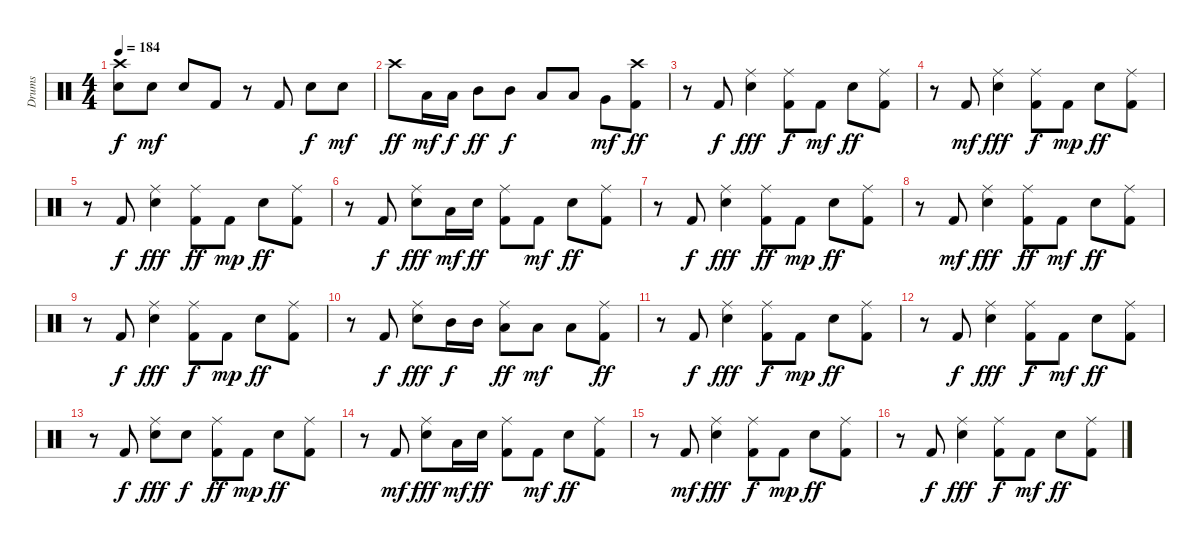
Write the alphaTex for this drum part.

\track ("Drums" "Drums") {instrument percussion}
\staff {score}
\articulation defaults
\ts (4 4)
\tempo 184
\clef neutral
\ks c
("Snare (hit) 2" "Crash high (hit)").8{dy f} "Snare (hit) 2".8{dy mf} "Snare (hit) 2".8 "Kick (hit) 2".8 r.8 "Kick (hit) 2".8 "Snare (hit) 2".8{dy f} "Snare (hit) 2".8{dy mf} |
"Crash high (hit)".8{dy ff} "Low Floor Tom (hit)".16{dy mf} "Low Floor Tom (hit)".16{dy f} "Mid Tom (hit)".8{dy ff} "Mid Tom (hit)".8{dy f} "Low Tom (hit)".8 "Low Tom (hit)".8 "Very Low Tom (hit)".8{dy mf} ("Kick (hit) 2" "Crash high (hit)").8{dy ff} |
r.8 "Kick (hit) 2".8{dy f} ("Snare (hit) 2" "Ride (middle)").4{dy fff} ("Kick (hit) 2" "Ride (middle)").8{dy f} "Kick (hit) 2".8{dy mf} "Snare (hit) 2".8{dy ff} ("Kick (hit) 2" "Ride (middle)").8 |
r.8 "Kick (hit) 2".8{dy mf} ("Snare (hit) 2" "Ride (middle)").4{dy fff} ("Kick (hit) 2" "Ride (middle)").8{dy f} "Kick (hit) 2".8{dy mp} "Snare (hit) 2".8{dy ff} ("Kick (hit) 2" "Ride (middle)").8 |
r.8 "Kick (hit) 2".8{dy f} ("Snare (hit) 2" "Ride (middle)").4{dy fff} ("Kick (hit) 2" "Ride (middle)").8{dy ff} "Kick (hit) 2".8{dy mp} "Snare (hit) 2".8{dy ff} ("Kick (hit) 2" "Ride (middle)").8 |
r.8 "Kick (hit) 2".8{dy f} ("Snare (hit) 2" "Ride (middle)").8{dy fff} "Low Floor Tom (hit)".16{dy mf} "Snare (hit) 2".16{dy ff} ("Kick (hit) 2" "Ride (middle)").8 "Kick (hit) 2".8{dy mf} "Snare (hit) 2".8{dy ff} ("Kick (hit) 2" "Ride (middle)").8 |
r.8 "Kick (hit) 2".8{dy f} ("Snare (hit) 2" "Ride (middle)").4{dy fff} ("Kick (hit) 2" "Ride (middle)").8{dy ff} "Kick (hit) 2".8{dy mp} "Snare (hit) 2".8{dy ff} ("Kick (hit) 2" "Ride (middle)").8 |
r.8 "Kick (hit) 2".8{dy mf} ("Snare (hit) 2" "Ride (middle)").4{dy fff} ("Kick (hit) 2" "Ride (middle)").8{dy ff} "Kick (hit) 2".8{dy mf} "Snare (hit) 2".8{dy ff} ("Kick (hit) 2" "Ride (middle)").8 |
r.8 "Kick (hit) 2".8{dy f} ("Snare (hit) 2" "Ride (middle)").4{dy fff} ("Kick (hit) 2" "Ride (middle)").8{dy f} "Kick (hit) 2".8{dy mp} "Snare (hit) 2".8{dy ff} ("Kick (hit) 2" "Ride (middle)").8 |
r.8 "Kick (hit) 2".8{dy f} ("Snare (hit) 2" "Ride (middle)").8{dy fff} "Mid Tom (hit)".16{dy f} "Mid Tom (hit)".16 ("Low Tom (hit)" "Ride (middle)").8{dy ff} "Low Tom (hit)".8{dy mf} "Low Floor Tom (hit)".8 ("Kick (hit) 2" "Ride (middle)").8{dy ff} |
r.8 "Kick (hit) 2".8{dy f} ("Snare (hit) 2" "Ride (middle)").4{dy fff} ("Kick (hit) 2" "Ride (middle)").8{dy f} "Kick (hit) 2".8{dy mp} "Snare (hit) 2".8{dy ff} ("Kick (hit) 2" "Ride (middle)").8 |
r.8 "Kick (hit) 2".8{dy f} ("Snare (hit) 2" "Ride (middle)").4{dy fff} ("Kick (hit) 2" "Ride (middle)").8{dy f} "Kick (hit) 2".8{dy mf} "Snare (hit) 2".8{dy ff} ("Kick (hit) 2" "Ride (middle)").8 |
r.8 "Kick (hit) 2".8{dy f} ("Snare (hit) 2" "Ride (middle)").8{dy fff} "Snare (hit) 2".8{dy f} ("Kick (hit) 2" "Ride (middle)").8{dy ff} "Kick (hit) 2".8{dy mp} "Snare (hit) 2".8{dy ff} ("Kick (hit) 2" "Ride (middle)").8 |
r.8 "Kick (hit) 2".8{dy mf} ("Snare (hit) 2" "Ride (middle)").8{dy fff} "Low Floor Tom (hit)".16{dy mf} "Snare (hit) 2".16{dy ff} ("Kick (hit) 2" "Ride (middle)").8 "Kick (hit) 2".8{dy mf} "Snare (hit) 2".8{dy ff} ("Kick (hit) 2" "Ride (middle)").8 |
r.8 "Kick (hit) 2".8{dy mf} ("Snare (hit) 2" "Ride (middle)").4{dy fff} ("Kick (hit) 2" "Ride (middle)").8{dy f} "Kick (hit) 2".8{dy mp} "Snare (hit) 2".8{dy ff} ("Kick (hit) 2" "Ride (middle)").8 |
r.8 "Kick (hit) 2".8{dy f} ("Snare (hit) 2" "Ride (middle)").4{dy fff} ("Kick (hit) 2" "Ride (middle)").8{dy f} "Kick (hit) 2".8{dy mf} "Snare (hit) 2".8{dy ff} ("Kick (hit) 2" "Ride (middle)").8
